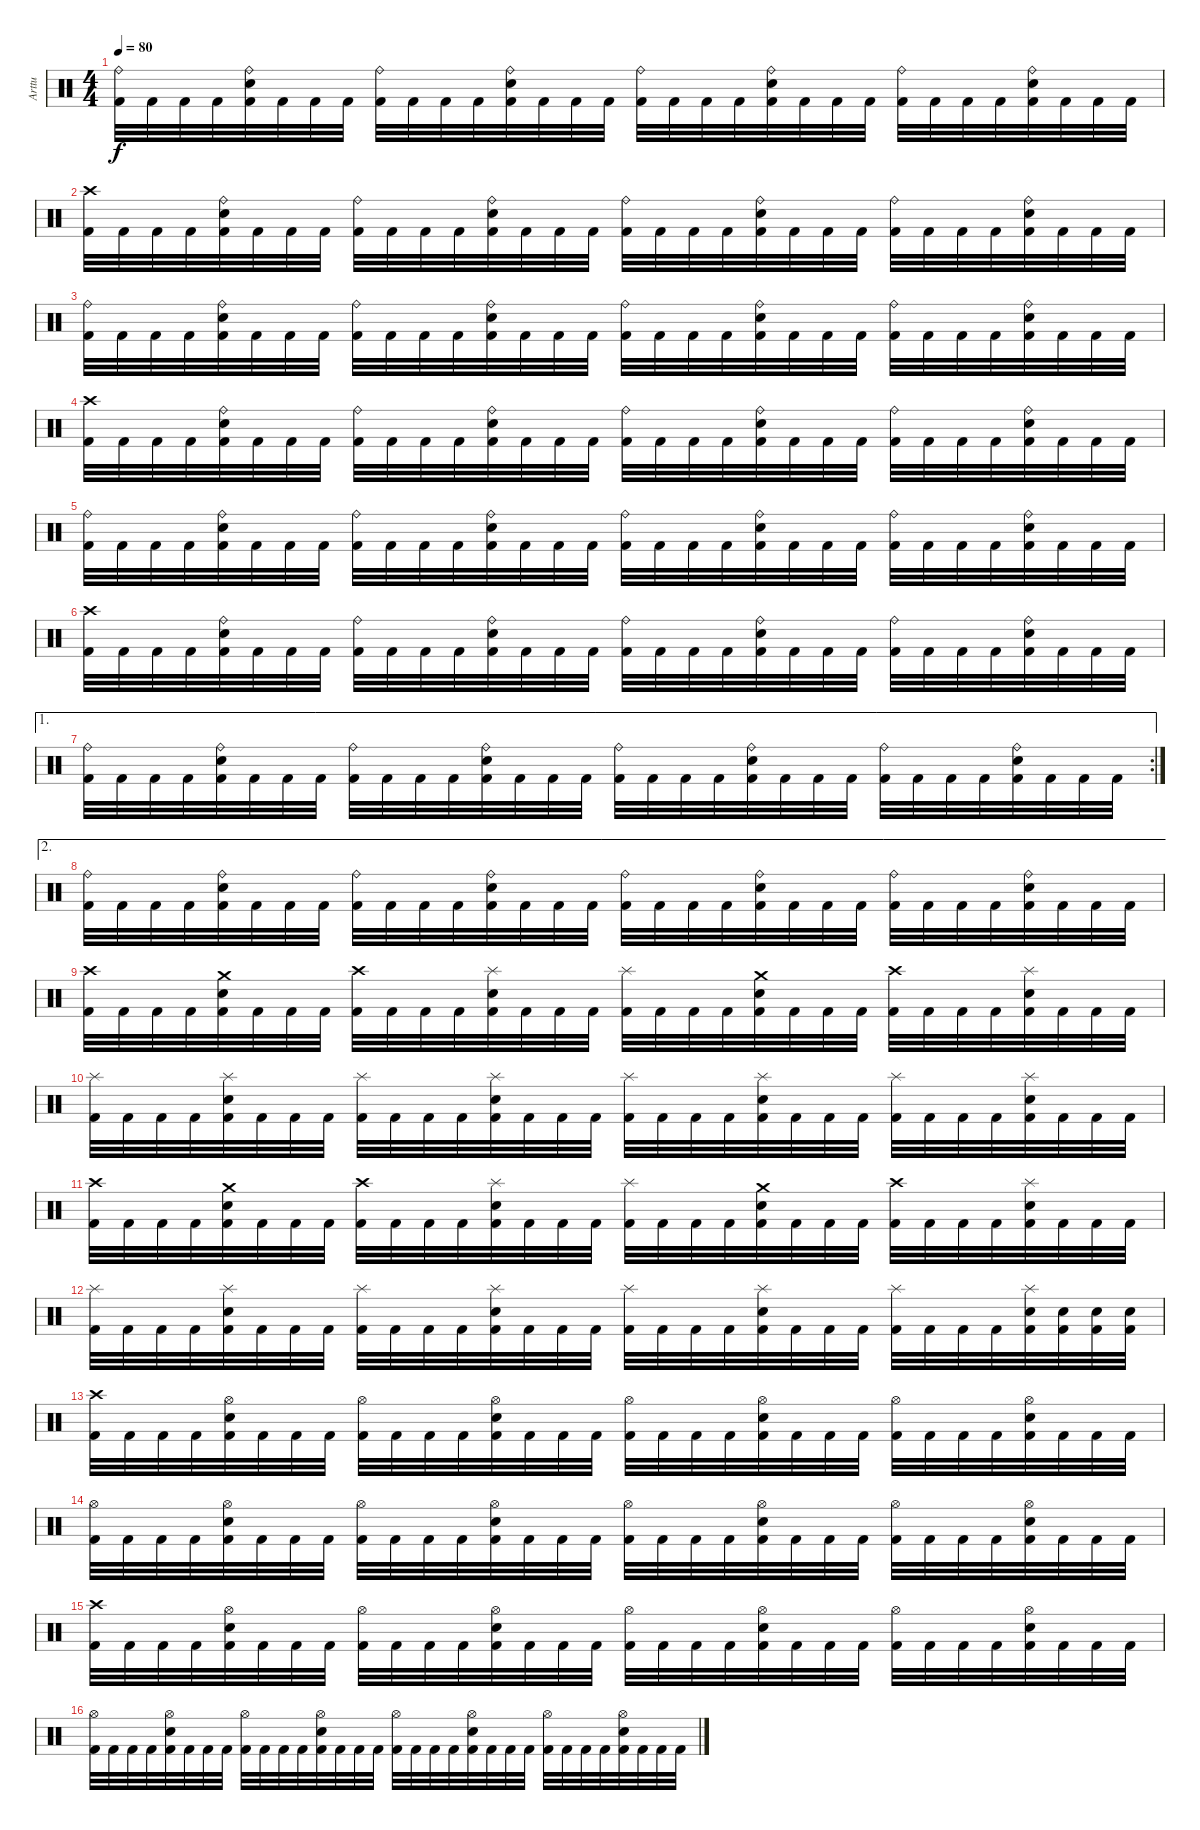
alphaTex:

\track ("Arttu" "Arttu") {instrument percussion}
\staff {score}
\articulation defaults
\ts (4 4)
\tempo 80
\clef neutral
\ks c
("Kick (hit) 2" "Ride (bell)").32{dy f} "Kick (hit) 2".32 "Kick (hit) 2".32 "Kick (hit) 2".32 ("Kick (hit) 2" "Electric Snare (hit)" "Ride (bell)").32 "Kick (hit) 2".32 "Kick (hit) 2".32 "Kick (hit) 2".32 ("Kick (hit) 2" "Ride (bell)").32 "Kick (hit) 2".32 "Kick (hit) 2".32 "Kick (hit) 2".32 ("Kick (hit) 2" "Electric Snare (hit)" "Ride (bell)").32 "Kick (hit) 2".32 "Kick (hit) 2".32 "Kick (hit) 2".32 ("Kick (hit) 2" "Ride (bell)").32 "Kick (hit) 2".32 "Kick (hit) 2".32 "Kick (hit) 2".32 ("Kick (hit) 2" "Electric Snare (hit)" "Ride (bell)").32 "Kick (hit) 2".32 "Kick (hit) 2".32 "Kick (hit) 2".32 ("Kick (hit) 2" "Ride (bell)").32 "Kick (hit) 2".32 "Kick (hit) 2".32 "Kick (hit) 2".32 ("Kick (hit) 2" "Electric Snare (hit)" "Ride (bell)").32 "Kick (hit) 2".32 "Kick (hit) 2".32 "Kick (hit) 2".32 |
("Kick (hit) 2" "Crash high (hit)").32 "Kick (hit) 2".32 "Kick (hit) 2".32 "Kick (hit) 2".32 ("Kick (hit) 2" "Electric Snare (hit)" "Ride (bell)").32 "Kick (hit) 2".32 "Kick (hit) 2".32 "Kick (hit) 2".32 ("Kick (hit) 2" "Ride (bell)").32 "Kick (hit) 2".32 "Kick (hit) 2".32 "Kick (hit) 2".32 ("Kick (hit) 2" "Electric Snare (hit)" "Ride (bell)").32 "Kick (hit) 2".32 "Kick (hit) 2".32 "Kick (hit) 2".32 ("Kick (hit) 2" "Ride (bell)").32 "Kick (hit) 2".32 "Kick (hit) 2".32 "Kick (hit) 2".32 ("Kick (hit) 2" "Electric Snare (hit)" "Ride (bell)").32 "Kick (hit) 2".32 "Kick (hit) 2".32 "Kick (hit) 2".32 ("Kick (hit) 2" "Ride (bell)").32 "Kick (hit) 2".32 "Kick (hit) 2".32 "Kick (hit) 2".32 ("Kick (hit) 2" "Electric Snare (hit)" "Ride (bell)").32 "Kick (hit) 2".32 "Kick (hit) 2".32 "Kick (hit) 2".32 |
("Kick (hit) 2" "Ride (bell)").32 "Kick (hit) 2".32 "Kick (hit) 2".32 "Kick (hit) 2".32 ("Kick (hit) 2" "Electric Snare (hit)" "Ride (bell)").32 "Kick (hit) 2".32 "Kick (hit) 2".32 "Kick (hit) 2".32 ("Kick (hit) 2" "Ride (bell)").32 "Kick (hit) 2".32 "Kick (hit) 2".32 "Kick (hit) 2".32 ("Kick (hit) 2" "Electric Snare (hit)" "Ride (bell)").32 "Kick (hit) 2".32 "Kick (hit) 2".32 "Kick (hit) 2".32 ("Kick (hit) 2" "Ride (bell)").32 "Kick (hit) 2".32 "Kick (hit) 2".32 "Kick (hit) 2".32 ("Kick (hit) 2" "Electric Snare (hit)" "Ride (bell)").32 "Kick (hit) 2".32 "Kick (hit) 2".32 "Kick (hit) 2".32 ("Kick (hit) 2" "Ride (bell)").32 "Kick (hit) 2".32 "Kick (hit) 2".32 "Kick (hit) 2".32 ("Kick (hit) 2" "Electric Snare (hit)" "Ride (bell)").32 "Kick (hit) 2".32 "Kick (hit) 2".32 "Kick (hit) 2".32 |
("Kick (hit) 2" "Crash high (hit)").32 "Kick (hit) 2".32 "Kick (hit) 2".32 "Kick (hit) 2".32 ("Kick (hit) 2" "Electric Snare (hit)" "Ride (bell)").32 "Kick (hit) 2".32 "Kick (hit) 2".32 "Kick (hit) 2".32 ("Kick (hit) 2" "Ride (bell)").32 "Kick (hit) 2".32 "Kick (hit) 2".32 "Kick (hit) 2".32 ("Kick (hit) 2" "Electric Snare (hit)" "Ride (bell)").32 "Kick (hit) 2".32 "Kick (hit) 2".32 "Kick (hit) 2".32 ("Kick (hit) 2" "Ride (bell)").32 "Kick (hit) 2".32 "Kick (hit) 2".32 "Kick (hit) 2".32 ("Kick (hit) 2" "Electric Snare (hit)" "Ride (bell)").32 "Kick (hit) 2".32 "Kick (hit) 2".32 "Kick (hit) 2".32 ("Kick (hit) 2" "Ride (bell)").32 "Kick (hit) 2".32 "Kick (hit) 2".32 "Kick (hit) 2".32 ("Kick (hit) 2" "Electric Snare (hit)" "Ride (bell)").32 "Kick (hit) 2".32 "Kick (hit) 2".32 "Kick (hit) 2".32 |
("Kick (hit) 2" "Ride (bell)").32 "Kick (hit) 2".32 "Kick (hit) 2".32 "Kick (hit) 2".32 ("Kick (hit) 2" "Electric Snare (hit)" "Ride (bell)").32 "Kick (hit) 2".32 "Kick (hit) 2".32 "Kick (hit) 2".32 ("Kick (hit) 2" "Ride (bell)").32 "Kick (hit) 2".32 "Kick (hit) 2".32 "Kick (hit) 2".32 ("Kick (hit) 2" "Electric Snare (hit)" "Ride (bell)").32 "Kick (hit) 2".32 "Kick (hit) 2".32 "Kick (hit) 2".32 ("Kick (hit) 2" "Ride (bell)").32 "Kick (hit) 2".32 "Kick (hit) 2".32 "Kick (hit) 2".32 ("Kick (hit) 2" "Electric Snare (hit)" "Ride (bell)").32 "Kick (hit) 2".32 "Kick (hit) 2".32 "Kick (hit) 2".32 ("Kick (hit) 2" "Ride (bell)").32 "Kick (hit) 2".32 "Kick (hit) 2".32 "Kick (hit) 2".32 ("Kick (hit) 2" "Electric Snare (hit)" "Ride (bell)").32 "Kick (hit) 2".32 "Kick (hit) 2".32 "Kick (hit) 2".32 |
("Kick (hit) 2" "Crash high (hit)").32 "Kick (hit) 2".32 "Kick (hit) 2".32 "Kick (hit) 2".32 ("Kick (hit) 2" "Electric Snare (hit)" "Ride (bell)").32 "Kick (hit) 2".32 "Kick (hit) 2".32 "Kick (hit) 2".32 ("Kick (hit) 2" "Ride (bell)").32 "Kick (hit) 2".32 "Kick (hit) 2".32 "Kick (hit) 2".32 ("Kick (hit) 2" "Electric Snare (hit)" "Ride (bell)").32 "Kick (hit) 2".32 "Kick (hit) 2".32 "Kick (hit) 2".32 ("Kick (hit) 2" "Ride (bell)").32 "Kick (hit) 2".32 "Kick (hit) 2".32 "Kick (hit) 2".32 ("Kick (hit) 2" "Electric Snare (hit)" "Ride (bell)").32 "Kick (hit) 2".32 "Kick (hit) 2".32 "Kick (hit) 2".32 ("Kick (hit) 2" "Ride (bell)").32 "Kick (hit) 2".32 "Kick (hit) 2".32 "Kick (hit) 2".32 ("Kick (hit) 2" "Electric Snare (hit)" "Ride (bell)").32 "Kick (hit) 2".32 "Kick (hit) 2".32 "Kick (hit) 2".32 |
\ae 1
\rc 2
("Kick (hit) 2" "Ride (bell)").32 "Kick (hit) 2".32 "Kick (hit) 2".32 "Kick (hit) 2".32 ("Kick (hit) 2" "Electric Snare (hit)" "Ride (bell)").32 "Kick (hit) 2".32 "Kick (hit) 2".32 "Kick (hit) 2".32 ("Kick (hit) 2" "Ride (bell)").32 "Kick (hit) 2".32 "Kick (hit) 2".32 "Kick (hit) 2".32 ("Kick (hit) 2" "Electric Snare (hit)" "Ride (bell)").32 "Kick (hit) 2".32 "Kick (hit) 2".32 "Kick (hit) 2".32 ("Kick (hit) 2" "Ride (bell)").32 "Kick (hit) 2".32 "Kick (hit) 2".32 "Kick (hit) 2".32 ("Kick (hit) 2" "Electric Snare (hit)" "Ride (bell)").32 "Kick (hit) 2".32 "Kick (hit) 2".32 "Kick (hit) 2".32 ("Kick (hit) 2" "Ride (bell)").32 "Kick (hit) 2".32 "Kick (hit) 2".32 "Kick (hit) 2".32 ("Kick (hit) 2" "Electric Snare (hit)" "Ride (bell)").32 "Kick (hit) 2".32 "Kick (hit) 2".32 "Kick (hit) 2".32 |
\ae 2
("Kick (hit) 2" "Ride (bell)").32 "Kick (hit) 2".32 "Kick (hit) 2".32 "Kick (hit) 2".32 ("Kick (hit) 2" "Electric Snare (hit)" "Ride (bell)").32 "Kick (hit) 2".32 "Kick (hit) 2".32 "Kick (hit) 2".32 ("Kick (hit) 2" "Ride (bell)").32 "Kick (hit) 2".32 "Kick (hit) 2".32 "Kick (hit) 2".32 ("Kick (hit) 2" "Electric Snare (hit)" "Ride (bell)").32 "Kick (hit) 2".32 "Kick (hit) 2".32 "Kick (hit) 2".32 ("Kick (hit) 2" "Ride (bell)").32 "Kick (hit) 2".32 "Kick (hit) 2".32 "Kick (hit) 2".32 ("Kick (hit) 2" "Electric Snare (hit)" "Ride (bell)").32 "Kick (hit) 2".32 "Kick (hit) 2".32 "Kick (hit) 2".32 ("Kick (hit) 2" "Ride (bell)").32 "Kick (hit) 2".32 "Kick (hit) 2".32 "Kick (hit) 2".32 ("Kick (hit) 2" "Electric Snare (hit)" "Ride (bell)").32 "Kick (hit) 2".32 "Kick (hit) 2".32 "Kick (hit) 2".32 |
("Kick (hit) 2" "Crash high (hit)").32 "Kick (hit) 2".32 "Kick (hit) 2".32 "Kick (hit) 2".32 ("Kick (hit) 2" "Electric Snare (hit)" "Crash medium (hit)").32 "Kick (hit) 2".32 "Kick (hit) 2".32 "Kick (hit) 2".32 ("Kick (hit) 2" "Crash high (hit)").32 "Kick (hit) 2".32 "Kick (hit) 2".32 "Kick (hit) 2".32 ("Kick (hit) 2" "Electric Snare (hit)" "Splash (hit)").32 "Kick (hit) 2".32 "Kick (hit) 2".32 "Kick (hit) 2".32 ("Kick (hit) 2" "Splash (hit)").32 "Kick (hit) 2".32 "Kick (hit) 2".32 "Kick (hit) 2".32 ("Kick (hit) 2" "Electric Snare (hit)" "Crash medium (hit)").32 "Kick (hit) 2".32 "Kick (hit) 2".32 "Kick (hit) 2".32 ("Kick (hit) 2" "Crash high (hit)").32 "Kick (hit) 2".32 "Kick (hit) 2".32 "Kick (hit) 2".32 ("Kick (hit) 2" "Electric Snare (hit)" "Splash (hit)").32 "Kick (hit) 2".32 "Kick (hit) 2".32 "Kick (hit) 2".32 |
("Kick (hit) 2" "Splash (hit)").32 "Kick (hit) 2".32 "Kick (hit) 2".32 "Kick (hit) 2".32 ("Kick (hit) 2" "Electric Snare (hit)" "Splash (hit)").32 "Kick (hit) 2".32 "Kick (hit) 2".32 "Kick (hit) 2".32 ("Kick (hit) 2" "Splash (hit)").32 "Kick (hit) 2".32 "Kick (hit) 2".32 "Kick (hit) 2".32 ("Kick (hit) 2" "Electric Snare (hit)" "Splash (hit)").32 "Kick (hit) 2".32 "Kick (hit) 2".32 "Kick (hit) 2".32 ("Kick (hit) 2" "Splash (hit)").32 "Kick (hit) 2".32 "Kick (hit) 2".32 "Kick (hit) 2".32 ("Kick (hit) 2" "Electric Snare (hit)" "Splash (hit)").32 "Kick (hit) 2".32 "Kick (hit) 2".32 "Kick (hit) 2".32 ("Kick (hit) 2" "Splash (hit)").32 "Kick (hit) 2".32 "Kick (hit) 2".32 "Kick (hit) 2".32 ("Kick (hit) 2" "Electric Snare (hit)" "Splash (hit)").32 "Kick (hit) 2".32 "Kick (hit) 2".32 "Kick (hit) 2".32 |
("Kick (hit) 2" "Crash high (hit)").32 "Kick (hit) 2".32 "Kick (hit) 2".32 "Kick (hit) 2".32 ("Kick (hit) 2" "Electric Snare (hit)" "Crash medium (hit)").32 "Kick (hit) 2".32 "Kick (hit) 2".32 "Kick (hit) 2".32 ("Kick (hit) 2" "Crash high (hit)").32 "Kick (hit) 2".32 "Kick (hit) 2".32 "Kick (hit) 2".32 ("Kick (hit) 2" "Electric Snare (hit)" "Splash (hit)").32 "Kick (hit) 2".32 "Kick (hit) 2".32 "Kick (hit) 2".32 ("Kick (hit) 2" "Splash (hit)").32 "Kick (hit) 2".32 "Kick (hit) 2".32 "Kick (hit) 2".32 ("Kick (hit) 2" "Electric Snare (hit)" "Crash medium (hit)").32 "Kick (hit) 2".32 "Kick (hit) 2".32 "Kick (hit) 2".32 ("Kick (hit) 2" "Crash high (hit)").32 "Kick (hit) 2".32 "Kick (hit) 2".32 "Kick (hit) 2".32 ("Kick (hit) 2" "Electric Snare (hit)" "Splash (hit)").32 "Kick (hit) 2".32 "Kick (hit) 2".32 "Kick (hit) 2".32 |
("Kick (hit) 2" "Splash (hit)").32 "Kick (hit) 2".32 "Kick (hit) 2".32 "Kick (hit) 2".32 ("Kick (hit) 2" "Electric Snare (hit)" "Splash (hit)").32 "Kick (hit) 2".32 "Kick (hit) 2".32 "Kick (hit) 2".32 ("Kick (hit) 2" "Splash (hit)").32 "Kick (hit) 2".32 "Kick (hit) 2".32 "Kick (hit) 2".32 ("Kick (hit) 2" "Electric Snare (hit)" "Splash (hit)").32 "Kick (hit) 2".32 "Kick (hit) 2".32 "Kick (hit) 2".32 ("Kick (hit) 2" "Splash (hit)").32 "Kick (hit) 2".32 "Kick (hit) 2".32 "Kick (hit) 2".32 ("Kick (hit) 2" "Electric Snare (hit)" "Splash (hit)").32 "Kick (hit) 2".32 "Kick (hit) 2".32 "Kick (hit) 2".32 ("Kick (hit) 2" "Splash (hit)").32 "Kick (hit) 2".32 "Kick (hit) 2".32 "Kick (hit) 2".32 ("Kick (hit) 2" "Electric Snare (hit)" "Splash (hit)").32 ("Kick (hit) 2" "Electric Snare (hit)").32 ("Kick (hit) 2" "Electric Snare (hit)").32 ("Kick (hit) 2" "Electric Snare (hit)").32 |
("Kick (hit) 2" "Crash high (hit)").32 "Kick (hit) 2".32 "Kick (hit) 2".32 "Kick (hit) 2".32 ("Kick (hit) 2" "Electric Snare (hit)" "Hi-Hat (open)").32 "Kick (hit) 2".32 "Kick (hit) 2".32 "Kick (hit) 2".32 ("Kick (hit) 2" "Hi-Hat (open)").32 "Kick (hit) 2".32 "Kick (hit) 2".32 "Kick (hit) 2".32 ("Kick (hit) 2" "Electric Snare (hit)" "Hi-Hat (open)").32 "Kick (hit) 2".32 "Kick (hit) 2".32 "Kick (hit) 2".32 ("Kick (hit) 2" "Hi-Hat (open)").32 "Kick (hit) 2".32 "Kick (hit) 2".32 "Kick (hit) 2".32 ("Kick (hit) 2" "Electric Snare (hit)" "Hi-Hat (open)").32 "Kick (hit) 2".32 "Kick (hit) 2".32 "Kick (hit) 2".32 ("Kick (hit) 2" "Hi-Hat (open)").32 "Kick (hit) 2".32 "Kick (hit) 2".32 "Kick (hit) 2".32 ("Kick (hit) 2" "Electric Snare (hit)" "Hi-Hat (open)").32 "Kick (hit) 2".32 "Kick (hit) 2".32 "Kick (hit) 2".32 |
("Kick (hit) 2" "Hi-Hat (open)").32 "Kick (hit) 2".32 "Kick (hit) 2".32 "Kick (hit) 2".32 ("Kick (hit) 2" "Electric Snare (hit)" "Hi-Hat (open)").32 "Kick (hit) 2".32 "Kick (hit) 2".32 "Kick (hit) 2".32 ("Kick (hit) 2" "Hi-Hat (open)").32 "Kick (hit) 2".32 "Kick (hit) 2".32 "Kick (hit) 2".32 ("Kick (hit) 2" "Electric Snare (hit)" "Hi-Hat (open)").32 "Kick (hit) 2".32 "Kick (hit) 2".32 "Kick (hit) 2".32 ("Kick (hit) 2" "Hi-Hat (open)").32 "Kick (hit) 2".32 "Kick (hit) 2".32 "Kick (hit) 2".32 ("Kick (hit) 2" "Electric Snare (hit)" "Hi-Hat (open)").32 "Kick (hit) 2".32 "Kick (hit) 2".32 "Kick (hit) 2".32 ("Kick (hit) 2" "Hi-Hat (open)").32 "Kick (hit) 2".32 "Kick (hit) 2".32 "Kick (hit) 2".32 ("Kick (hit) 2" "Electric Snare (hit)" "Hi-Hat (open)").32 "Kick (hit) 2".32 "Kick (hit) 2".32 "Kick (hit) 2".32 |
("Kick (hit) 2" "Crash high (hit)").32 "Kick (hit) 2".32 "Kick (hit) 2".32 "Kick (hit) 2".32 ("Kick (hit) 2" "Electric Snare (hit)" "Hi-Hat (open)").32 "Kick (hit) 2".32 "Kick (hit) 2".32 "Kick (hit) 2".32 ("Kick (hit) 2" "Hi-Hat (open)").32 "Kick (hit) 2".32 "Kick (hit) 2".32 "Kick (hit) 2".32 ("Kick (hit) 2" "Electric Snare (hit)" "Hi-Hat (open)").32 "Kick (hit) 2".32 "Kick (hit) 2".32 "Kick (hit) 2".32 ("Kick (hit) 2" "Hi-Hat (open)").32 "Kick (hit) 2".32 "Kick (hit) 2".32 "Kick (hit) 2".32 ("Kick (hit) 2" "Electric Snare (hit)" "Hi-Hat (open)").32 "Kick (hit) 2".32 "Kick (hit) 2".32 "Kick (hit) 2".32 ("Kick (hit) 2" "Hi-Hat (open)").32 "Kick (hit) 2".32 "Kick (hit) 2".32 "Kick (hit) 2".32 ("Kick (hit) 2" "Electric Snare (hit)" "Hi-Hat (open)").32 "Kick (hit) 2".32 "Kick (hit) 2".32 "Kick (hit) 2".32 |
("Kick (hit) 2" "Hi-Hat (open)").32 "Kick (hit) 2".32 "Kick (hit) 2".32 "Kick (hit) 2".32 ("Kick (hit) 2" "Electric Snare (hit)" "Hi-Hat (open)").32 "Kick (hit) 2".32 "Kick (hit) 2".32 "Kick (hit) 2".32 ("Kick (hit) 2" "Hi-Hat (open)").32 "Kick (hit) 2".32 "Kick (hit) 2".32 "Kick (hit) 2".32 ("Kick (hit) 2" "Electric Snare (hit)" "Hi-Hat (open)").32 "Kick (hit) 2".32 "Kick (hit) 2".32 "Kick (hit) 2".32 ("Kick (hit) 2" "Hi-Hat (open)").32 "Kick (hit) 2".32 "Kick (hit) 2".32 "Kick (hit) 2".32 ("Kick (hit) 2" "Electric Snare (hit)" "Hi-Hat (open)").32 "Kick (hit) 2".32 "Kick (hit) 2".32 "Kick (hit) 2".32 ("Kick (hit) 2" "Hi-Hat (open)").32 "Kick (hit) 2".32 "Kick (hit) 2".32 "Kick (hit) 2".32 ("Kick (hit) 2" "Electric Snare (hit)" "Hi-Hat (open)").32 "Kick (hit) 2".32 "Kick (hit) 2".32 "Kick (hit) 2".32
